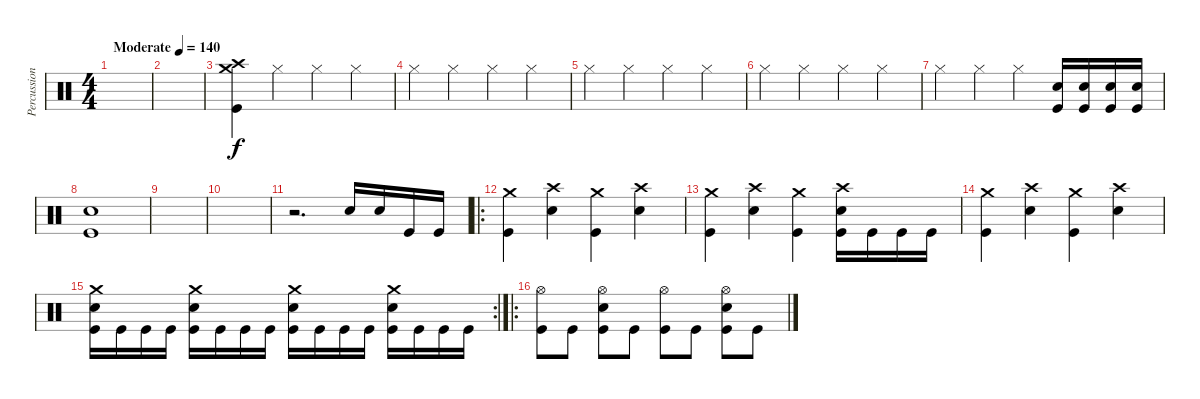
\track ("Percussion" "Percussion") {instrument percussion}
\staff {score}
\articulation defaults
\ts (4 4)
\tempo (140 "Moderate")
\clef neutral
\ks c
|
|
("Crash medium (hit)" "Crash high (hit)" "Kick (hit)").4 "Hi-Hat (closed)".4 "Hi-Hat (closed)".4 "Hi-Hat (closed)".4 |
"Hi-Hat (closed)".4 "Hi-Hat (closed)".4 "Hi-Hat (closed)".4 "Hi-Hat (closed)".4 |
"Hi-Hat (closed)".4 "Hi-Hat (closed)".4 "Hi-Hat (closed)".4 "Hi-Hat (closed)".4 |
"Hi-Hat (closed)".4 "Hi-Hat (closed)".4 "Hi-Hat (closed)".4 "Hi-Hat (closed)".4 |
"Hi-Hat (closed)".4 "Hi-Hat (closed)".4 "Hi-Hat (closed)".4 ("Snare (hit) 2" "Kick (hit)").16 ("Snare (hit) 2" "Kick (hit)").16 ("Snare (hit) 2" "Kick (hit)").16 ("Snare (hit) 2" "Kick (hit)").16 |
("Snare (hit) 2" "Kick (hit)").1 |
|
|
r.2{d} "Snare (hit) 2".16 "Snare (hit) 2".16 "Kick (hit)".16 "Kick (hit)".16 |
\ro
("Crash medium (hit)" "Kick (hit)").4 ("Crash high (hit)" "Snare (hit) 2").4 ("Crash medium (hit)" "Kick (hit)").4 ("Crash high (hit)" "Snare (hit) 2").4 |
("Crash medium (hit)" "Kick (hit)").4 ("Crash high (hit)" "Snare (hit) 2").4 ("Crash medium (hit)" "Kick (hit)").4 ("Crash high (hit)" "Snare (hit) 2" "Kick (hit)").16 "Kick (hit)".16 "Kick (hit)".16 "Kick (hit)".16 |
("Crash medium (hit)" "Kick (hit)").4 ("Crash high (hit)" "Snare (hit) 2").4 ("Crash medium (hit)" "Kick (hit)").4 ("Crash high (hit)" "Snare (hit) 2").4 |
\rc 2
("Crash medium (hit)" "Snare (hit) 2" "Kick (hit)").16 "Kick (hit)".16 "Kick (hit)".16 "Kick (hit)".16 ("Crash medium (hit)" "Snare (hit) 2" "Kick (hit)").16 "Kick (hit)".16 "Kick (hit)".16 "Kick (hit)".16 ("Crash medium (hit)" "Snare (hit) 2" "Kick (hit)").16 "Kick (hit)".16 "Kick (hit)".16 "Kick (hit)".16 ("Crash medium (hit)" "Snare (hit) 2" "Kick (hit)").16 "Kick (hit)".16 "Kick (hit)".16 "Kick (hit)".16 |
\ro
("Hi-Hat (open)" "Kick (hit)").8 "Kick (hit)".8 ("Hi-Hat (open)" "Snare (hit) 2" "Kick (hit)").8 "Kick (hit)".8 ("Hi-Hat (open)" "Kick (hit)").8 "Kick (hit)".8 ("Hi-Hat (open)" "Snare (hit) 2" "Kick (hit)").8 "Kick (hit)".8
